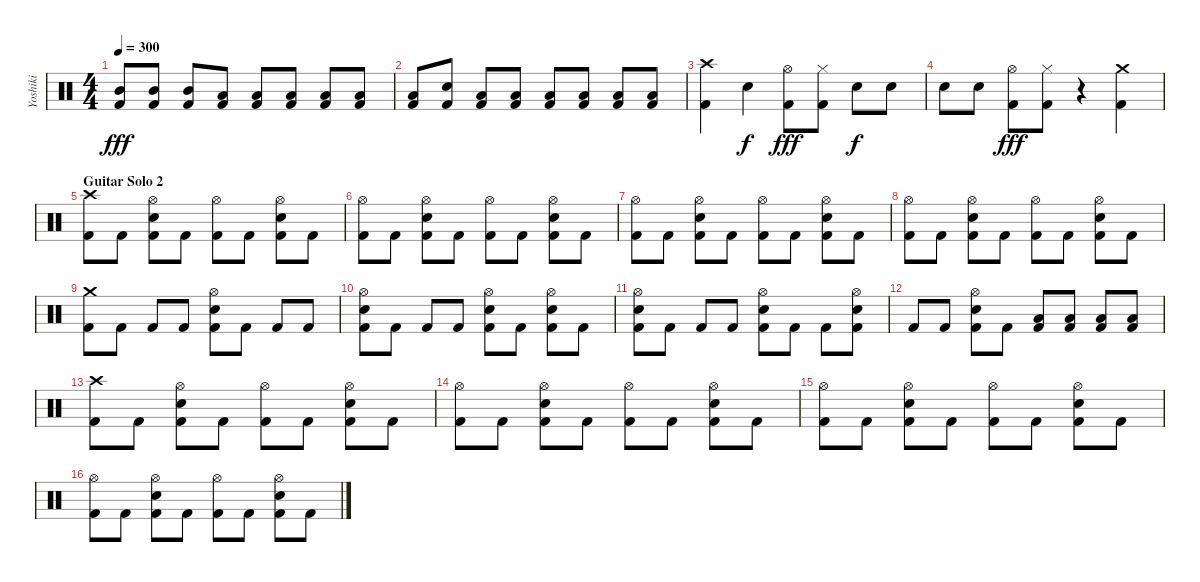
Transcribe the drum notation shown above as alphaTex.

\track ("Yoshiki" "Yoshiki") {instrument percussion}
\staff {score}
\articulation defaults
\ts (4 4)
\tempo 300
\clef neutral
\ks c
("Mid Tom (hit)" "Kick (hit) 2").8{dy fff} ("Mid Tom (hit)" "Kick (hit) 2").8 ("Mid Tom (hit)" "Kick (hit) 2").8 ("Low Tom (hit)" "Kick (hit) 2").8 ("Low Tom (hit)" "Kick (hit) 2").8 ("Low Tom (hit)" "Kick (hit) 2").8 ("Low Floor Tom (hit)" "Kick (hit) 2").8 ("Low Floor Tom (hit)" "Kick (hit) 2").8 |
("Low Floor Tom (hit)" "Kick (hit) 2").8 ("Snare (hit) 2" "Kick (hit) 2").8 ("Low Floor Tom (hit)" "Kick (hit) 2").8 ("Low Floor Tom (hit)" "Kick (hit) 2").8 ("Low Floor Tom (hit)" "Kick (hit) 2").8 ("Low Floor Tom (hit)" "Kick (hit) 2").8 ("Low Floor Tom (hit)" "Kick (hit) 2").8 ("Low Floor Tom (hit)" "Kick (hit) 2").8 |
("Crash high (hit)" "Kick (hit) 2").4 "Snare (hit) 2".4{dy f} ("Hi-Hat (open)" "Kick (hit) 2").8{dy fff} ("Hi-Hat (closed)" "Kick (hit) 2").8 "Snare (hit) 2".8{dy f} "Snare (hit) 2".8 |
"Snare (hit) 2".8 "Snare (hit) 2".8 ("Hi-Hat (open)" "Kick (hit) 2").8{dy fff} ("Hi-Hat (closed)" "Kick (hit) 2").8 r.4 ("Crash medium (hit)" "Kick (hit) 2").4 |
\section ("" "Guitar Solo 2")
("Crash high (hit)" "Kick (hit) 2").8 "Kick (hit) 2".8 ("Hi-Hat (open)" "Snare (hit) 2" "Kick (hit) 2").8 "Kick (hit) 2".8 ("Hi-Hat (open)" "Kick (hit) 2").8 "Kick (hit) 2".8 ("Hi-Hat (open)" "Snare (hit) 2" "Kick (hit) 2").8 "Kick (hit) 2".8 |
("Hi-Hat (open)" "Kick (hit) 2").8 "Kick (hit) 2".8 ("Hi-Hat (open)" "Snare (hit) 2" "Kick (hit) 2").8 "Kick (hit) 2".8 ("Hi-Hat (open)" "Kick (hit) 2").8 "Kick (hit) 2".8 ("Hi-Hat (open)" "Snare (hit) 2" "Kick (hit) 2").8 "Kick (hit) 2".8 |
("Hi-Hat (open)" "Kick (hit) 2").8 "Kick (hit) 2".8 ("Hi-Hat (open)" "Snare (hit) 2" "Kick (hit) 2").8 "Kick (hit) 2".8 ("Hi-Hat (open)" "Kick (hit) 2").8 "Kick (hit) 2".8 ("Hi-Hat (open)" "Snare (hit) 2" "Kick (hit) 2").8 "Kick (hit) 2".8 |
("Hi-Hat (open)" "Kick (hit) 2").8 "Kick (hit) 2".8 ("Hi-Hat (open)" "Snare (hit) 2" "Kick (hit) 2").8 "Kick (hit) 2".8 ("Hi-Hat (open)" "Kick (hit) 2").8 "Kick (hit) 2".8 ("Hi-Hat (open)" "Snare (hit) 2" "Kick (hit) 2").8 "Kick (hit) 2".8 |
("Crash medium (hit)" "Kick (hit) 2").8 "Kick (hit) 2".8 "Kick (hit) 2".8 "Kick (hit) 2".8 ("Hi-Hat (open)" "Snare (hit) 2" "Kick (hit) 2").8 "Kick (hit) 2".8 "Kick (hit) 2".8 "Kick (hit) 2".8 |
("Hi-Hat (open)" "Snare (hit) 2" "Kick (hit) 2").8 "Kick (hit) 2".8 "Kick (hit) 2".8 "Kick (hit) 2".8 ("Hi-Hat (open)" "Snare (hit) 2" "Kick (hit) 2").8 "Kick (hit) 2".8 ("Hi-Hat (open)" "Snare (hit) 2" "Kick (hit) 2").8 "Kick (hit) 2".8 |
("Hi-Hat (open)" "Snare (hit) 2" "Kick (hit) 2").8 "Kick (hit) 2".8 "Kick (hit) 2".8 "Kick (hit) 2".8 ("Hi-Hat (open)" "Snare (hit) 2" "Kick (hit) 2").8 "Kick (hit) 2".8 "Kick (hit) 2".8 ("Hi-Hat (open)" "Snare (hit) 2" "Kick (hit) 2").8 |
"Kick (hit) 2".8 "Kick (hit) 2".8 ("Hi-Hat (open)" "Snare (hit) 2" "Kick (hit) 2").8 "Kick (hit) 2".8 ("Low Floor Tom (hit)" "Kick (hit) 2").8 ("Low Floor Tom (hit)" "Kick (hit) 2").8 ("Low Floor Tom (hit)" "Kick (hit) 2").8 ("Low Floor Tom (hit)" "Kick (hit) 2").8 |
("Crash high (hit)" "Kick (hit) 2").8 "Kick (hit) 2".8 ("Hi-Hat (open)" "Snare (hit) 2" "Kick (hit) 2").8 "Kick (hit) 2".8 ("Hi-Hat (open)" "Kick (hit) 2").8 "Kick (hit) 2".8 ("Hi-Hat (open)" "Snare (hit) 2" "Kick (hit) 2").8 "Kick (hit) 2".8 |
("Hi-Hat (open)" "Kick (hit) 2").8 "Kick (hit) 2".8 ("Hi-Hat (open)" "Snare (hit) 2" "Kick (hit) 2").8 "Kick (hit) 2".8 ("Hi-Hat (open)" "Kick (hit) 2").8 "Kick (hit) 2".8 ("Hi-Hat (open)" "Snare (hit) 2" "Kick (hit) 2").8 "Kick (hit) 2".8 |
("Hi-Hat (open)" "Kick (hit) 2").8 "Kick (hit) 2".8 ("Hi-Hat (open)" "Snare (hit) 2" "Kick (hit) 2").8 "Kick (hit) 2".8 ("Hi-Hat (open)" "Kick (hit) 2").8 "Kick (hit) 2".8 ("Hi-Hat (open)" "Snare (hit) 2" "Kick (hit) 2").8 "Kick (hit) 2".8 |
("Hi-Hat (open)" "Kick (hit) 2").8 "Kick (hit) 2".8 ("Hi-Hat (open)" "Snare (hit) 2" "Kick (hit) 2").8 "Kick (hit) 2".8 ("Hi-Hat (open)" "Kick (hit) 2").8 "Kick (hit) 2".8 ("Hi-Hat (open)" "Snare (hit) 2" "Kick (hit) 2").8 "Kick (hit) 2".8
